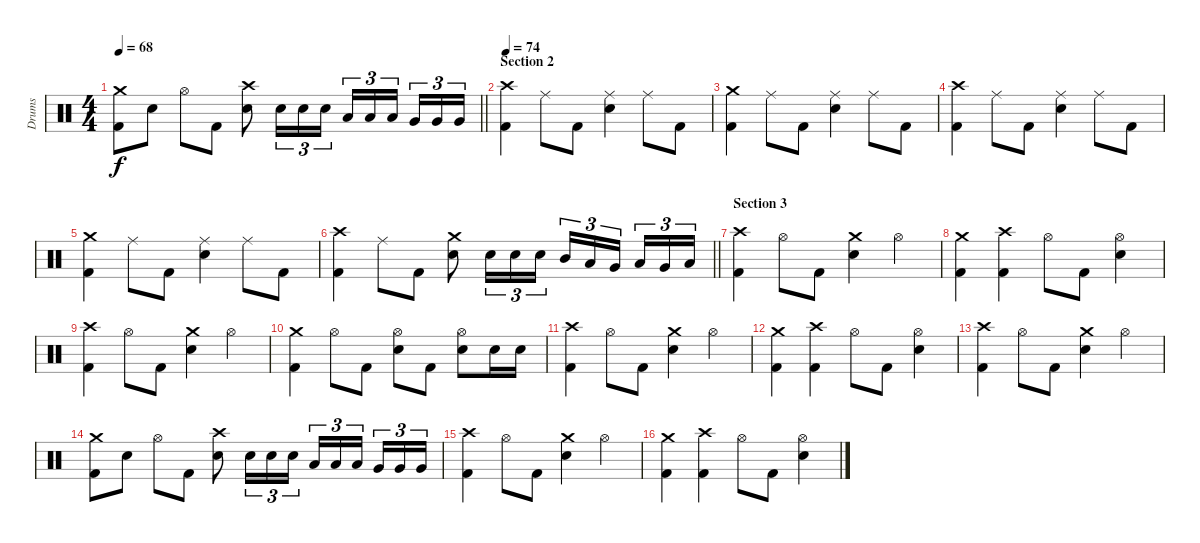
\track ("Drums" "Drums") {instrument percussion}
\staff {score}
\articulation defaults
\ts (4 4)
\tempo 68
\clef neutral
\barLineRight lightlight
\ks c
("Crash medium (hit)" "Kick (hit) 2").8{dy f} "Electric Snare (hit)".8 "Hi-Hat (open)".8 "Kick (hit) 2".8 ("Crash high (hit)" "Electric Snare (hit)").8 "Electric Snare (hit)".16{tu (3 2)} "Electric Snare (hit)".16{tu (3 2)} "Electric Snare (hit)".16{tu (3 2)} "Low Tom (hit)".16{tu (3 2)} "Low Tom (hit)".16{tu (3 2)} "Low Tom (hit)".16{tu (3 2) beam splitsecondary} "Very Low Tom (hit)".16{tu (3 2)} "Very Low Tom (hit)".16{tu (3 2)} "Very Low Tom (hit)".16{tu (3 2)} |
\section ("" "Section 2")
\tempo 74
("Crash high (hit)" "Kick (hit) 2").4 "Ride (middle)".8 "Kick (hit) 2".8 ("Ride (middle)" "Electric Snare (hit)").4 "Ride (middle)".8 "Kick (hit) 2".8 |
("Crash medium (hit)" "Kick (hit) 2").4 "Ride (middle)".8 "Kick (hit) 2".8 ("Ride (middle)" "Electric Snare (hit)").4 "Ride (middle)".8 "Kick (hit) 2".8 |
("Crash high (hit)" "Kick (hit) 2").4 "Ride (middle)".8 "Kick (hit) 2".8 ("Ride (middle)" "Electric Snare (hit)").4 "Ride (middle)".8 "Kick (hit) 2".8 |
("Crash medium (hit)" "Kick (hit) 2").4 "Ride (middle)".8 "Kick (hit) 2".8 ("Ride (middle)" "Electric Snare (hit)").4 "Ride (middle)".8 "Kick (hit) 2".8 |
\barLineRight lightlight
("Crash high (hit)" "Kick (hit) 2").4 "Ride (middle)".8 "Kick (hit) 2".8 ("Crash medium (hit)" "Electric Snare (hit)").8 "Electric Snare (hit)".16{tu (3 2)} "Electric Snare (hit)".16{tu (3 2)} "Electric Snare (hit)".16{tu (3 2)} "Mid Tom (hit)".16{tu (3 2)} "Low Tom (hit)".16{tu (3 2)} "Very Low Tom (hit)".16{tu (3 2) beam splitsecondary} "Low Tom (hit)".16{tu (3 2)} "Very Low Tom (hit)".16{tu (3 2)} "Low Floor Tom (hit)".16{tu (3 2)} |
\section ("" "Section 3")
("Crash high (hit)" "Kick (hit) 2").4 "Hi-Hat (open)".8 "Kick (hit) 2".8 ("Crash medium (hit)" "Electric Snare (hit)").4 "Hi-Hat (open)".4 |
("Crash medium (hit)" "Kick (hit) 2").4 ("Crash high (hit)" "Kick (hit) 2").4 "Hi-Hat (open)".8 "Kick (hit) 2".8 ("Hi-Hat (open)" "Electric Snare (hit)").4 |
("Crash high (hit)" "Kick (hit) 2").4 "Hi-Hat (open)".8 "Kick (hit) 2".8 ("Crash medium (hit)" "Electric Snare (hit)").4 "Hi-Hat (open)".4 |
("Crash medium (hit)" "Kick (hit) 2").4 "Hi-Hat (open)".8 "Kick (hit) 2".8 ("Hi-Hat (open)" "Electric Snare (hit)").8 "Kick (hit) 2".8 ("Hi-Hat (open)" "Electric Snare (hit)").8 "Electric Snare (hit)".16 "Electric Snare (hit)".16 |
("Crash high (hit)" "Kick (hit) 2").4 "Hi-Hat (open)".8 "Kick (hit) 2".8 ("Crash medium (hit)" "Electric Snare (hit)").4 "Hi-Hat (open)".4 |
("Crash medium (hit)" "Kick (hit) 2").4 ("Crash high (hit)" "Kick (hit) 2").4 "Hi-Hat (open)".8 "Kick (hit) 2".8 ("Hi-Hat (open)" "Electric Snare (hit)").4 |
("Crash high (hit)" "Kick (hit) 2").4 "Hi-Hat (open)".8 "Kick (hit) 2".8 ("Crash medium (hit)" "Electric Snare (hit)").4 "Hi-Hat (open)".4 |
("Crash medium (hit)" "Kick (hit) 2").8 "Electric Snare (hit)".8 "Hi-Hat (open)".8 "Kick (hit) 2".8 ("Crash high (hit)" "Electric Snare (hit)").8 "Electric Snare (hit)".16{tu (3 2)} "Electric Snare (hit)".16{tu (3 2)} "Electric Snare (hit)".16{tu (3 2)} "Low Tom (hit)".16{tu (3 2)} "Low Tom (hit)".16{tu (3 2)} "Low Tom (hit)".16{tu (3 2) beam splitsecondary} "Very Low Tom (hit)".16{tu (3 2)} "Very Low Tom (hit)".16{tu (3 2)} "Very Low Tom (hit)".16{tu (3 2)} |
("Crash high (hit)" "Kick (hit) 2").4 "Hi-Hat (open)".8 "Kick (hit) 2".8 ("Crash medium (hit)" "Electric Snare (hit)").4 "Hi-Hat (open)".4 |
("Crash medium (hit)" "Kick (hit) 2").4 ("Crash high (hit)" "Kick (hit) 2").4 "Hi-Hat (open)".8 "Kick (hit) 2".8 ("Hi-Hat (open)" "Electric Snare (hit)").4
